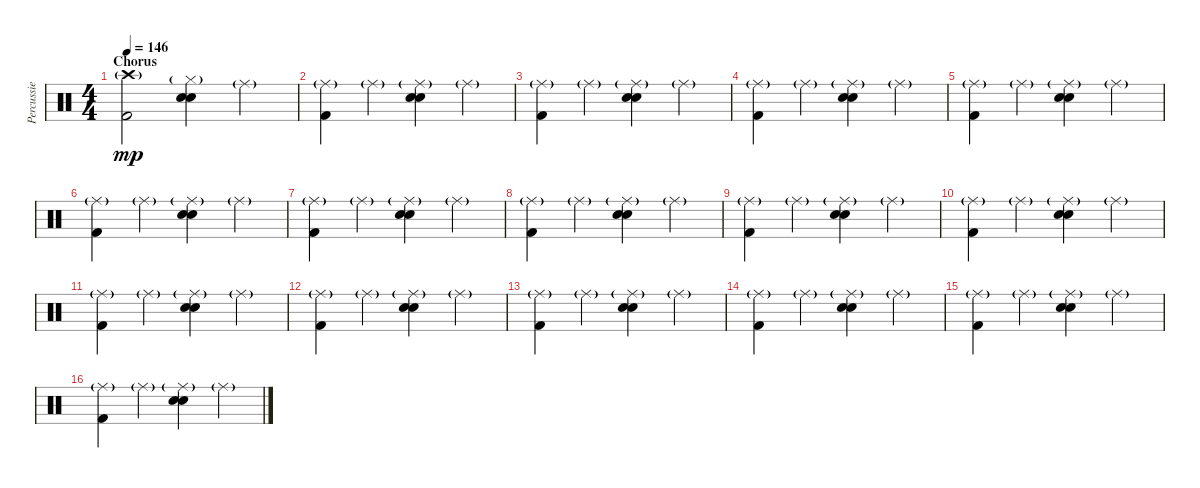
\track ("Percussie" "Percussie") {instrument percussion}
\staff {score}
\articulation defaults
\ts (4 4)
\section ("" "Chorus")
\tempo 146
\clef neutral
\ks c
("Crash high (hit)"{g} "Kick (hit) 2").2{dy mp} ("Hi-Hat (closed)"{g} "Snare (hit) 2" "Snare (hit) 2").4 "Ride (middle)"{g}.4 |
("Ride (middle)"{g} "Kick (hit) 2").4 "Ride (middle)"{g}.4 ("Ride (middle)"{g} "Snare (hit) 2" "Snare (hit) 2").4 "Ride (middle)"{g}.4 |
("Ride (middle)"{g} "Kick (hit) 2").4 "Ride (middle)"{g}.4 ("Ride (middle)"{g} "Snare (hit) 2" "Snare (hit) 2").4 "Ride (middle)"{g}.4 |
("Ride (middle)"{g} "Kick (hit) 2").4 "Ride (middle)"{g}.4 ("Ride (middle)"{g} "Snare (hit) 2" "Snare (hit) 2").4 "Ride (middle)"{g}.4 |
("Ride (middle)"{g} "Kick (hit) 2").4 "Ride (middle)"{g}.4 ("Ride (middle)"{g} "Snare (hit) 2" "Snare (hit) 2").4 "Ride (middle)"{g}.4 |
("Ride (middle)"{g} "Kick (hit) 2").4 "Ride (middle)"{g}.4 ("Ride (middle)"{g} "Snare (hit) 2" "Snare (hit) 2").4 "Ride (middle)"{g}.4 |
("Ride (middle)"{g} "Kick (hit) 2").4 "Ride (middle)"{g}.4 ("Ride (middle)"{g} "Snare (hit) 2" "Snare (hit) 2").4 "Ride (middle)"{g}.4 |
("Ride (middle)"{g} "Kick (hit) 2").4 "Ride (middle)"{g}.4 ("Ride (middle)"{g} "Snare (hit) 2" "Snare (hit) 2").4 "Ride (middle)"{g}.4 |
("Ride (middle)"{g} "Kick (hit) 2").4 "Ride (middle)"{g}.4 ("Ride (middle)"{g} "Snare (hit) 2" "Snare (hit) 2").4 "Ride (middle)"{g}.4 |
("Ride (middle)"{g} "Kick (hit) 2").4 "Ride (middle)"{g}.4 ("Ride (middle)"{g} "Snare (hit) 2" "Snare (hit) 2").4 "Ride (middle)"{g}.4 |
("Ride (middle)"{g} "Kick (hit) 2").4 "Ride (middle)"{g}.4 ("Ride (middle)"{g} "Snare (hit) 2" "Snare (hit) 2").4 "Ride (middle)"{g}.4 |
("Ride (middle)"{g} "Kick (hit) 2").4 "Ride (middle)"{g}.4 ("Ride (middle)"{g} "Snare (hit) 2" "Snare (hit) 2").4 "Ride (middle)"{g}.4 |
("Ride (middle)"{g} "Kick (hit) 2").4 "Ride (middle)"{g}.4 ("Ride (middle)"{g} "Snare (hit) 2" "Snare (hit) 2").4 "Ride (middle)"{g}.4 |
("Ride (middle)"{g} "Kick (hit) 2").4 "Ride (middle)"{g}.4 ("Ride (middle)"{g} "Snare (hit) 2" "Snare (hit) 2").4 "Ride (middle)"{g}.4 |
("Ride (middle)"{g} "Kick (hit) 2").4 "Ride (middle)"{g}.4 ("Ride (middle)"{g} "Snare (hit) 2" "Snare (hit) 2").4 "Ride (middle)"{g}.4 |
("Ride (middle)"{g} "Kick (hit) 2").4 "Ride (middle)"{g}.4 ("Ride (middle)"{g} "Snare (hit) 2" "Snare (hit) 2").4 "Ride (middle)"{g}.4
